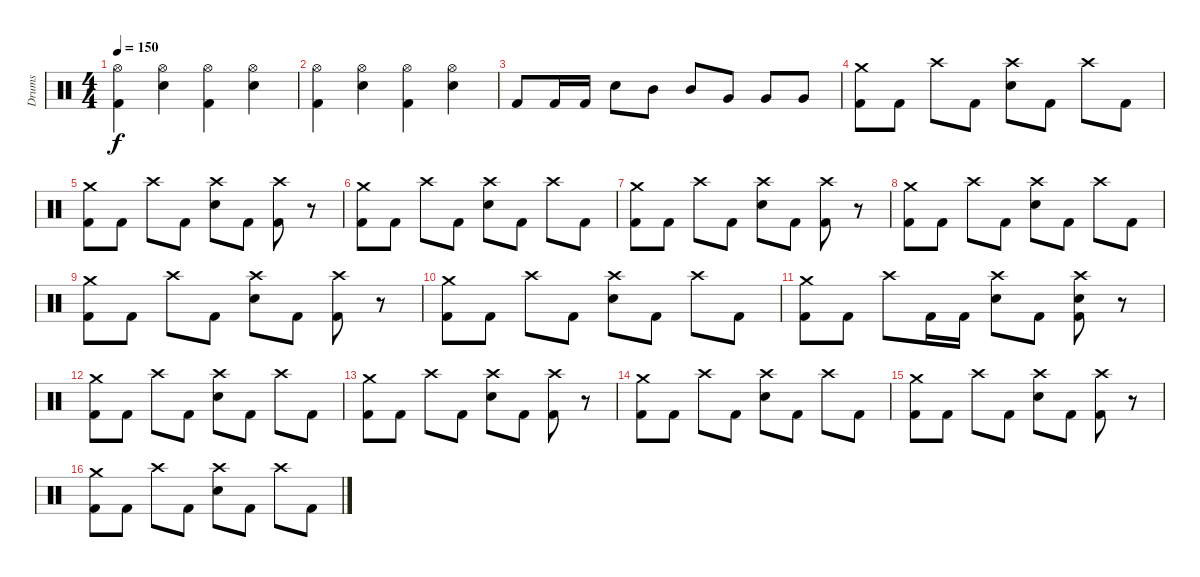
\track ("Drums" "Drums") {instrument percussion}
\staff {score}
\articulation defaults
\ts (4 4)
\tempo 150
\clef neutral
\ks c
("Hi-Hat (open)" "Kick (hit) 2").4{dy f} ("Hi-Hat (open)" "Electric Snare (hit)").4 ("Hi-Hat (open)" "Kick (hit) 2").4 ("Hi-Hat (open)" "Electric Snare (hit)").4 |
("Hi-Hat (open)" "Kick (hit) 2").4 ("Hi-Hat (open)" "Electric Snare (hit)").4 ("Hi-Hat (open)" "Kick (hit) 2").4 ("Hi-Hat (open)" "Electric Snare (hit)").4 |
"Kick (hit) 2".8 "Kick (hit) 2".16 "Kick (hit) 2".16 "Electric Snare (hit)".8 "Mid Tom (hit)".8 "Mid Tom (hit)".8 "Very Low Tom (hit)".8 "Very Low Tom (hit)".8 "Very Low Tom (hit)".8 |
("Kick (hit) 2" "Crash medium (hit)").8 "Kick (hit) 2".8 "Crash high (hit)".8 "Kick (hit) 2".8 ("Electric Snare (hit)" "Crash high (hit)").8 "Kick (hit) 2".8 "Crash high (hit)".8 "Kick (hit) 2".8 |
("Kick (hit) 2" "Crash medium (hit)").8 "Kick (hit) 2".8 "Crash high (hit)".8 "Kick (hit) 2".8 ("Electric Snare (hit)" "Crash high (hit)").8 "Kick (hit) 2".8 ("Kick (hit) 2" "Crash high (hit)").8 r.8 |
("Kick (hit) 2" "Crash medium (hit)").8 "Kick (hit) 2".8 "Crash high (hit)".8 "Kick (hit) 2".8 ("Electric Snare (hit)" "Crash high (hit)").8 "Kick (hit) 2".8 "Crash high (hit)".8 "Kick (hit) 2".8 |
("Kick (hit) 2" "Crash medium (hit)").8 "Kick (hit) 2".8 "Crash high (hit)".8 "Kick (hit) 2".8 ("Electric Snare (hit)" "Crash high (hit)").8 "Kick (hit) 2".8 ("Kick (hit) 2" "Crash high (hit)").8 r.8 |
("Kick (hit) 2" "Crash medium (hit)").8 "Kick (hit) 2".8 "Crash high (hit)".8 "Kick (hit) 2".8 ("Electric Snare (hit)" "Crash high (hit)").8 "Kick (hit) 2".8 "Crash high (hit)".8 "Kick (hit) 2".8 |
("Kick (hit) 2" "Crash medium (hit)").8 "Kick (hit) 2".8 "Crash high (hit)".8 "Kick (hit) 2".8 ("Electric Snare (hit)" "Crash high (hit)").8 "Kick (hit) 2".8 ("Kick (hit) 2" "Crash high (hit)").8 r.8 |
("Kick (hit) 2" "Crash medium (hit)").8 "Kick (hit) 2".8 "Crash high (hit)".8 "Kick (hit) 2".8 ("Electric Snare (hit)" "Crash high (hit)").8 "Kick (hit) 2".8 "Crash high (hit)".8 "Kick (hit) 2".8 |
("Kick (hit) 2" "Crash medium (hit)").8 "Kick (hit) 2".8 "Crash high (hit)".8 "Kick (hit) 2".16 "Kick (hit) 2".16 ("Electric Snare (hit)" "Crash high (hit)").8 "Kick (hit) 2".8 ("Kick (hit) 2" "Electric Snare (hit)" "Crash high (hit)").8 r.8 |
("Kick (hit) 2" "Crash medium (hit)").8 "Kick (hit) 2".8 "Crash high (hit)".8 "Kick (hit) 2".8 ("Electric Snare (hit)" "Crash high (hit)").8 "Kick (hit) 2".8 "Crash high (hit)".8 "Kick (hit) 2".8 |
("Kick (hit) 2" "Crash medium (hit)").8 "Kick (hit) 2".8 "Crash high (hit)".8 "Kick (hit) 2".8 ("Electric Snare (hit)" "Crash high (hit)").8 "Kick (hit) 2".8 ("Kick (hit) 2" "Crash high (hit)").8 r.8 |
("Kick (hit) 2" "Crash medium (hit)").8 "Kick (hit) 2".8 "Crash high (hit)".8 "Kick (hit) 2".8 ("Electric Snare (hit)" "Crash high (hit)").8 "Kick (hit) 2".8 "Crash high (hit)".8 "Kick (hit) 2".8 |
("Kick (hit) 2" "Crash medium (hit)").8 "Kick (hit) 2".8 "Crash high (hit)".8 "Kick (hit) 2".8 ("Electric Snare (hit)" "Crash high (hit)").8 "Kick (hit) 2".8 ("Kick (hit) 2" "Crash high (hit)").8 r.8 |
("Kick (hit) 2" "Crash medium (hit)").8 "Kick (hit) 2".8 "Crash high (hit)".8 "Kick (hit) 2".8 ("Electric Snare (hit)" "Crash high (hit)").8 "Kick (hit) 2".8 "Crash high (hit)".8 "Kick (hit) 2".8
